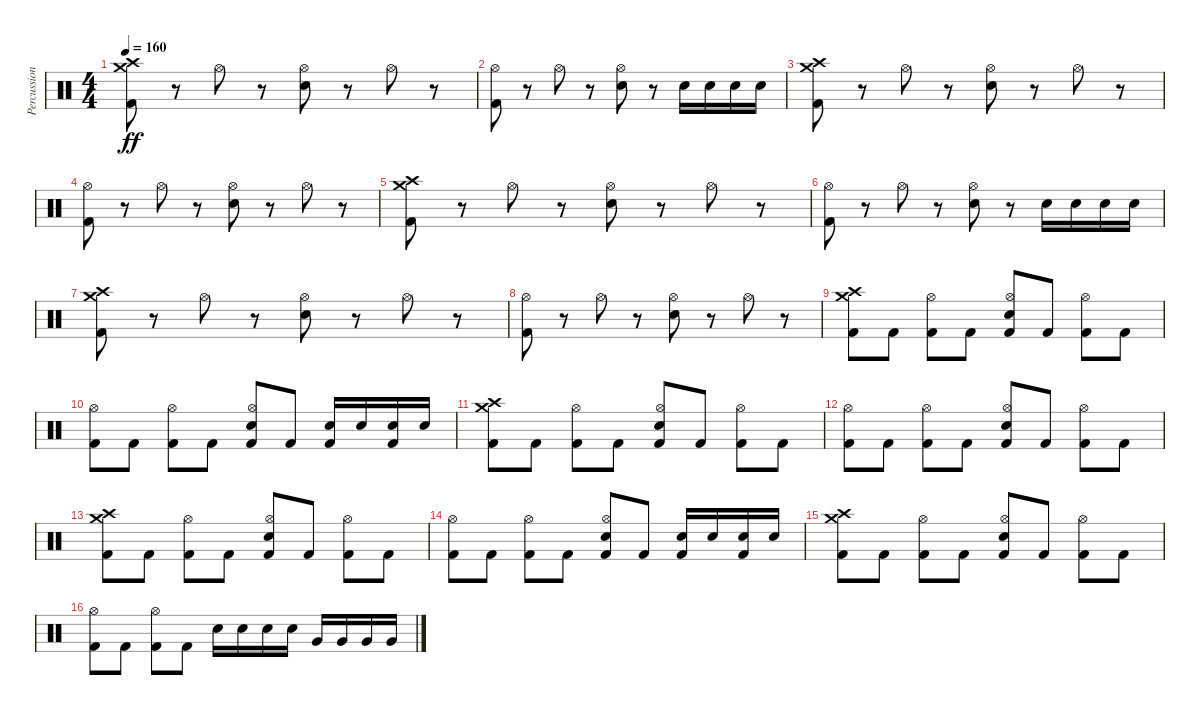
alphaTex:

\track ("Percussion" "Percussion") {instrument percussion}
\staff {score}
\articulation defaults
\ts (4 4)
\tempo 160
\clef neutral
\ks c
("Kick (hit) 2" "Crash medium (hit)" "Crash high (hit)").8{dy ff} r.8 "Hi-Hat (open)".8 r.8 ("Electric Snare (hit)" "Hi-Hat (open)").8 r.8 "Hi-Hat (open)".8 r.8 |
("Kick (hit) 2" "Hi-Hat (open)").8 r.8 "Hi-Hat (open)".8 r.8 ("Electric Snare (hit)" "Hi-Hat (open)").8 r.8 "Electric Snare (hit)".16 "Electric Snare (hit)".16 "Electric Snare (hit)".16 "Electric Snare (hit)".16 |
("Kick (hit) 2" "Crash medium (hit)" "Crash high (hit)").8 r.8 "Hi-Hat (open)".8 r.8 ("Electric Snare (hit)" "Hi-Hat (open)").8 r.8 "Hi-Hat (open)".8 r.8 |
("Kick (hit) 2" "Hi-Hat (open)").8 r.8 "Hi-Hat (open)".8 r.8 ("Electric Snare (hit)" "Hi-Hat (open)").8 r.8 "Hi-Hat (open)".8 r.8 |
("Kick (hit) 2" "Crash medium (hit)" "Crash high (hit)").8 r.8 "Hi-Hat (open)".8 r.8 ("Electric Snare (hit)" "Hi-Hat (open)").8 r.8 "Hi-Hat (open)".8 r.8 |
("Kick (hit) 2" "Hi-Hat (open)").8 r.8 "Hi-Hat (open)".8 r.8 ("Electric Snare (hit)" "Hi-Hat (open)").8 r.8 "Electric Snare (hit)".16 "Electric Snare (hit)".16 "Electric Snare (hit)".16 "Electric Snare (hit)".16 |
("Kick (hit) 2" "Crash medium (hit)" "Crash high (hit)").8 r.8 "Hi-Hat (open)".8 r.8 ("Electric Snare (hit)" "Hi-Hat (open)").8 r.8 "Hi-Hat (open)".8 r.8 |
("Kick (hit) 2" "Hi-Hat (open)").8 r.8 "Hi-Hat (open)".8 r.8 ("Electric Snare (hit)" "Hi-Hat (open)").8 r.8 "Hi-Hat (open)".8 r.8 |
("Kick (hit) 2" "Crash medium (hit)" "Crash high (hit)").8 "Kick (hit) 2".8 ("Kick (hit) 2" "Hi-Hat (open)").8 "Kick (hit) 2".8 ("Kick (hit) 2" "Electric Snare (hit)" "Hi-Hat (open)").8 "Kick (hit) 2".8 ("Kick (hit) 2" "Hi-Hat (open)").8 "Kick (hit) 2".8 |
("Kick (hit) 2" "Hi-Hat (open)").8 "Kick (hit) 2".8 ("Kick (hit) 2" "Hi-Hat (open)").8 "Kick (hit) 2".8 ("Kick (hit) 2" "Electric Snare (hit)" "Hi-Hat (open)").8 "Kick (hit) 2".8 ("Kick (hit) 2" "Electric Snare (hit)").16 "Electric Snare (hit)".16 ("Kick (hit) 2" "Electric Snare (hit)").16 "Electric Snare (hit)".16 |
("Kick (hit) 2" "Crash medium (hit)" "Crash high (hit)").8 "Kick (hit) 2".8 ("Kick (hit) 2" "Hi-Hat (open)").8 "Kick (hit) 2".8 ("Kick (hit) 2" "Electric Snare (hit)" "Hi-Hat (open)").8 "Kick (hit) 2".8 ("Kick (hit) 2" "Hi-Hat (open)").8 "Kick (hit) 2".8 |
("Kick (hit) 2" "Hi-Hat (open)").8 "Kick (hit) 2".8 ("Kick (hit) 2" "Hi-Hat (open)").8 "Kick (hit) 2".8 ("Kick (hit) 2" "Electric Snare (hit)" "Hi-Hat (open)").8 "Kick (hit) 2".8 ("Kick (hit) 2" "Hi-Hat (open)").8 "Kick (hit) 2".8 |
("Kick (hit) 2" "Crash medium (hit)" "Crash high (hit)").8 "Kick (hit) 2".8 ("Kick (hit) 2" "Hi-Hat (open)").8 "Kick (hit) 2".8 ("Kick (hit) 2" "Electric Snare (hit)" "Hi-Hat (open)").8 "Kick (hit) 2".8 ("Kick (hit) 2" "Hi-Hat (open)").8 "Kick (hit) 2".8 |
("Kick (hit) 2" "Hi-Hat (open)").8 "Kick (hit) 2".8 ("Kick (hit) 2" "Hi-Hat (open)").8 "Kick (hit) 2".8 ("Kick (hit) 2" "Electric Snare (hit)" "Hi-Hat (open)").8 "Kick (hit) 2".8 ("Kick (hit) 2" "Electric Snare (hit)").16 "Electric Snare (hit)".16 ("Kick (hit) 2" "Electric Snare (hit)").16 "Electric Snare (hit)".16 |
("Kick (hit) 2" "Crash medium (hit)" "Crash high (hit)").8 "Kick (hit) 2".8 ("Kick (hit) 2" "Hi-Hat (open)").8 "Kick (hit) 2".8 ("Kick (hit) 2" "Electric Snare (hit)" "Hi-Hat (open)").8 "Kick (hit) 2".8 ("Kick (hit) 2" "Hi-Hat (open)").8 "Kick (hit) 2".8 |
("Kick (hit) 2" "Hi-Hat (open)").8 "Kick (hit) 2".8 ("Kick (hit) 2" "Hi-Hat (open)").8 "Kick (hit) 2".8 "Electric Snare (hit)".16 "Electric Snare (hit)".16 "Electric Snare (hit)".16 "Electric Snare (hit)".16 "Very Low Tom (hit)".16 "Very Low Tom (hit)".16 "Very Low Tom (hit)".16 "Very Low Tom (hit)".16
